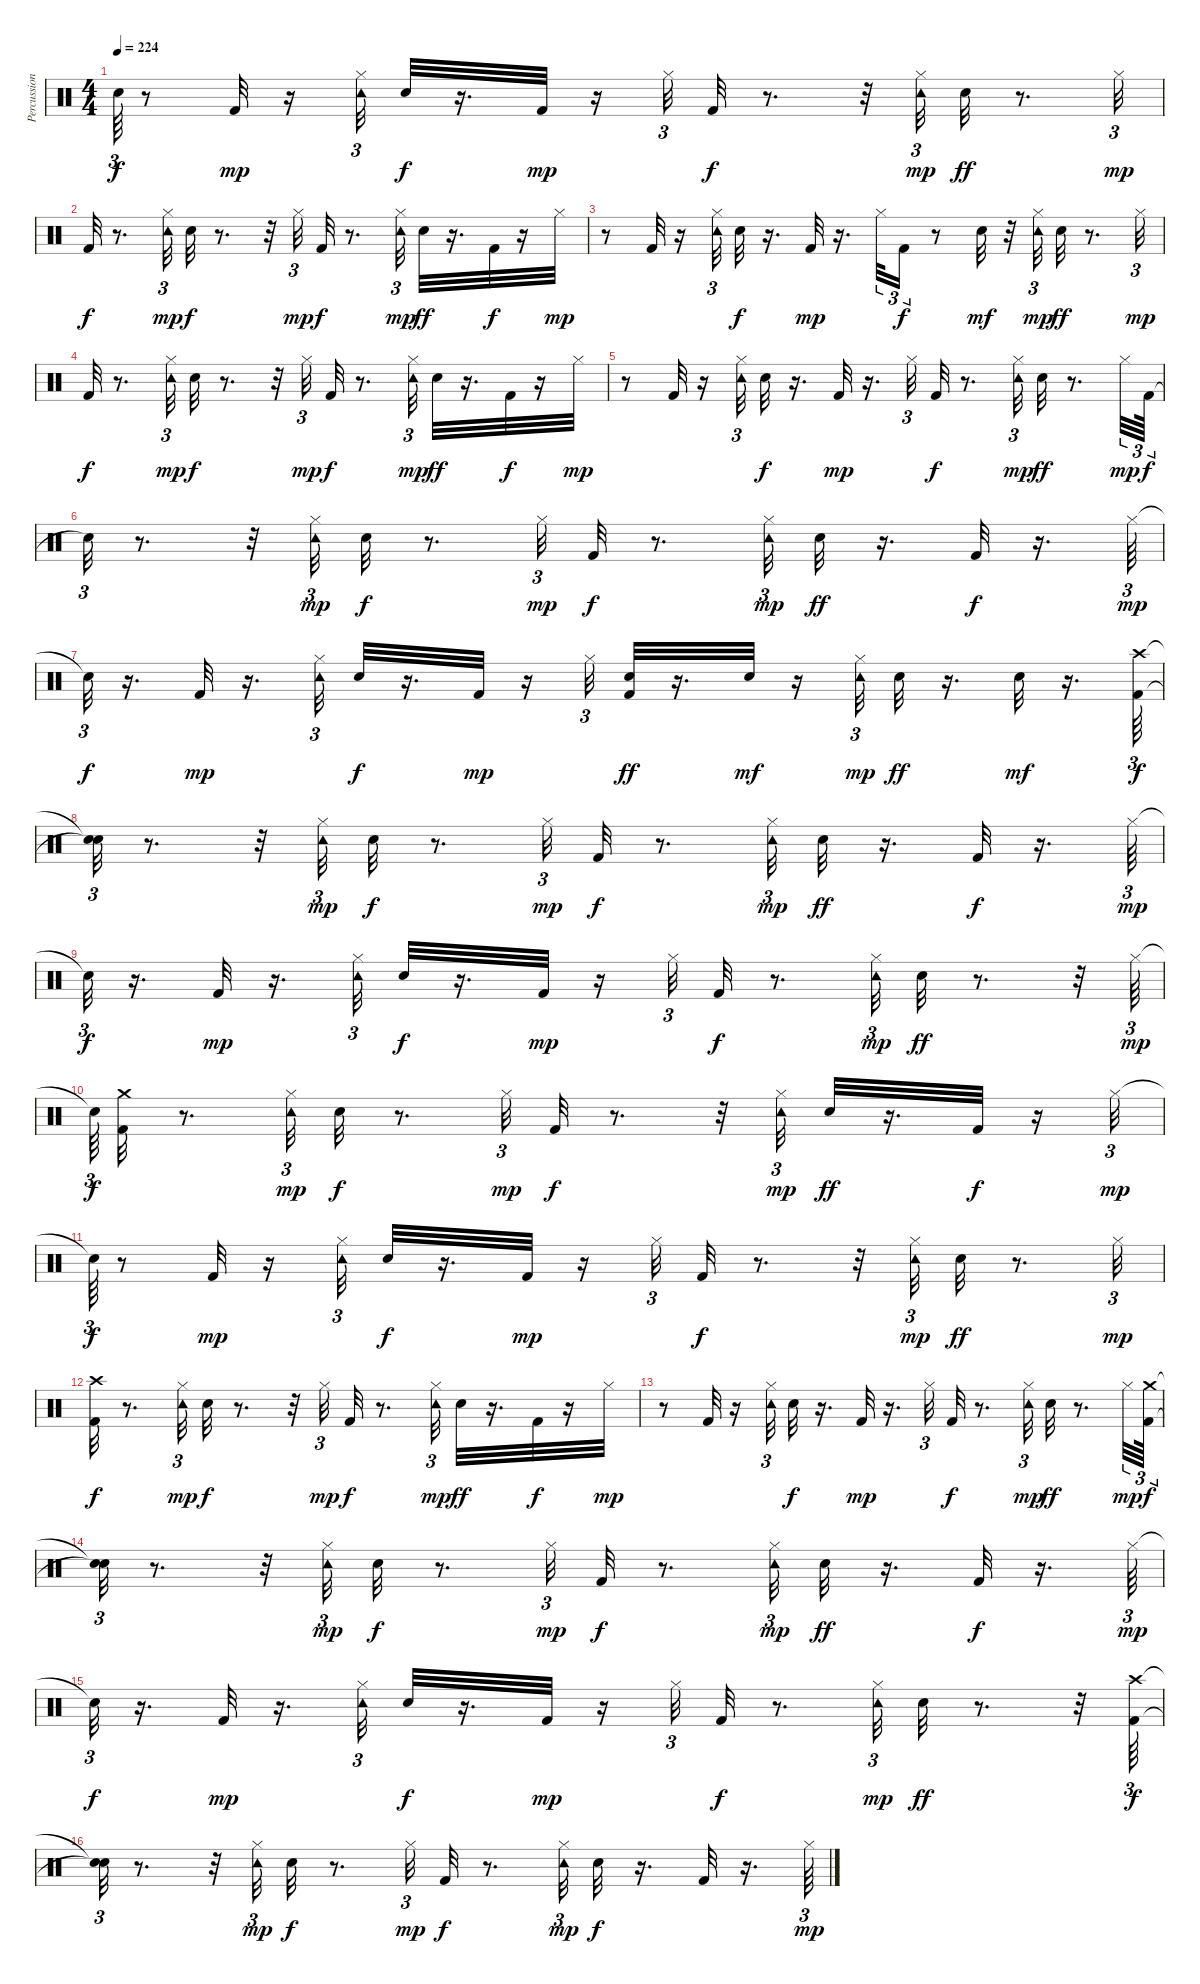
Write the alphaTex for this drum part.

\track ("Percussion" "Percussion") {instrument percussion}
\staff {score}
\articulation defaults
\ts (4 4)
\tempo 224
\clef neutral
\ks c "Snare (hit)"{t}.64{tu (3 2) dy f}
r.8 "Kick (hit) 2".32{dy mp} r.16 ("Tambourine (hit)" "Hi-Hat (closed)").32{tu (3 2)} "Snare (hit) 2".32{dy f} r.16{d} "Kick (hit) 2".32{dy mp} r.16 "Hi-Hat (closed)".32{tu (3 2)} "Kick (hit) 2".32{dy f} r.8{d} r.32 ("Tambourine (hit)" "Hi-Hat (closed)").32{tu (3 2) dy mp} "Snare (hit) 2".32{dy ff} r.8{d} "Hi-Hat (closed)".32{tu (3 2) dy mp} |
"Kick (hit) 2".32{dy f} r.8{d} ("Tambourine (hit)" "Hi-Hat (closed)").32{tu (3 2) dy mp} "Snare (hit) 2".32{dy f} r.8{d} r.32 "Hi-Hat (closed)".32{tu (3 2) dy mp} "Kick (hit) 2".32{dy f} r.8{d} ("Tambourine (hit)" "Hi-Hat (closed)").32{tu (3 2) dy mp} "Snare (hit) 2".32{dy ff} r.16{d} "Kick (hit) 2".32{dy f} r.16 "Hi-Hat (closed)".32{dy mp} |
r.8 "Kick (hit) 2".32 r.16 ("Tambourine (hit)" "Hi-Hat (closed)").32{tu (3 2)} "Snare (hit) 2".32{dy f} r.16{d} "Kick (hit) 2".32{dy mp} r.16{d} "Hi-Hat (closed)".32{tu (3 2)} "Kick (hit) 2".16{tu (3 2) dy f} r.8 "Snare (hit) 2".32{dy mf} r.32 ("Tambourine (hit)" "Hi-Hat (closed)").32{tu (3 2) dy mp} "Snare (hit) 2".32{dy ff} r.8{d} "Hi-Hat (closed)".32{tu (3 2) dy mp} |
"Kick (hit) 2".32{dy f} r.8{d} ("Tambourine (hit)" "Hi-Hat (closed)").32{tu (3 2) dy mp} "Snare (hit) 2".32{dy f} r.8{d} r.32 "Hi-Hat (closed)".32{tu (3 2) dy mp} "Kick (hit) 2".32{dy f} r.8{d} ("Tambourine (hit)" "Hi-Hat (closed)").32{tu (3 2) dy mp} "Snare (hit) 2".32{dy ff} r.16{d} "Kick (hit) 2".32{dy f} r.16 "Hi-Hat (closed)".32{dy mp} |
r.8 "Kick (hit) 2".32 r.16 ("Tambourine (hit)" "Hi-Hat (closed)").32{tu (3 2)} "Snare (hit) 2".32{dy f} r.16{d} "Kick (hit) 2".32{dy mp} r.16{d} "Hi-Hat (closed)".32{tu (3 2)} "Kick (hit) 2".32{dy f} r.8{d} ("Tambourine (hit)" "Hi-Hat (closed)").32{tu (3 2) dy mp} "Snare (hit) 2".32{dy ff} r.8{d} "Hi-Hat (closed)".32{tu (3 2) dy mp} "Kick (hit) 2".64{tu (3 2) dy f} |
"Snare (hit)"{t}.32{tu (3 2)} r.8{d} r.32 ("Tambourine (hit)" "Hi-Hat (closed)").32{tu (3 2) dy mp} "Snare (hit) 2".32{dy f} r.8{d} "Hi-Hat (closed)".32{tu (3 2) dy mp} "Kick (hit) 2".32{dy f} r.8{d} ("Tambourine (hit)" "Hi-Hat (closed)").32{tu (3 2) dy mp} "Snare (hit) 2".32{dy ff} r.16{d} "Kick (hit) 2".32{dy f} r.16{d} "Hi-Hat (closed)".64{tu (3 2) dy mp} |
"Snare (hit)"{t}.32{tu (3 2) dy f} r.16{d} "Kick (hit) 2".32{dy mp} r.16{d} ("Tambourine (hit)" "Hi-Hat (closed)").32{tu (3 2)} "Snare (hit) 2".32{dy f} r.16{d} "Kick (hit) 2".32{dy mp} r.16 "Hi-Hat (closed)".32{tu (3 2)} ("Kick (hit) 2" "Snare (hit) 2").32{dy ff} r.16{d} "Snare (hit) 2".32{dy mf} r.16 ("Tambourine (hit)" "Hi-Hat (closed)").32{tu (3 2) dy mp} "Snare (hit) 2".32{dy ff} r.16{d} "Snare (hit) 2".32{dy mf} r.16{d} ("Kick (hit) 2" "Crash high (hit)").64{tu (3 2) dy f} |
("Snare (hit)"{t} "Snare (hit)"{t}).32{tu (3 2)} r.8{d} r.32 ("Tambourine (hit)" "Hi-Hat (closed)").32{tu (3 2) dy mp} "Snare (hit) 2".32{dy f} r.8{d} "Hi-Hat (closed)".32{tu (3 2) dy mp} "Kick (hit) 2".32{dy f} r.8{d} ("Tambourine (hit)" "Hi-Hat (closed)").32{tu (3 2) dy mp} "Snare (hit) 2".32{dy ff} r.16{d} "Kick (hit) 2".32{dy f} r.16{d} "Hi-Hat (closed)".64{tu (3 2) dy mp} |
"Snare (hit)"{t}.32{tu (3 2) dy f} r.16{d} "Kick (hit) 2".32{dy mp} r.16{d} ("Tambourine (hit)" "Hi-Hat (closed)").32{tu (3 2)} "Snare (hit) 2".32{dy f} r.16{d} "Kick (hit) 2".32{dy mp} r.16 "Hi-Hat (closed)".32{tu (3 2)} "Kick (hit) 2".32{dy f} r.8{d} ("Tambourine (hit)" "Hi-Hat (closed)").32{tu (3 2) dy mp} "Snare (hit) 2".32{dy ff} r.8{d} r.32 "Hi-Hat (closed)".64{tu (3 2) dy mp} |
"Snare (hit)"{t}.64{tu (3 2) dy f} ("Kick (hit) 2" "Crash medium (hit)").32 r.8{d} ("Tambourine (hit)" "Hi-Hat (closed)").32{tu (3 2) dy mp} "Snare (hit) 2".32{dy f} r.8{d} "Hi-Hat (closed)".32{tu (3 2) dy mp} "Kick (hit) 2".32{dy f} r.8{d} r.32 ("Tambourine (hit)" "Hi-Hat (closed)").32{tu (3 2) dy mp} "Snare (hit) 2".32{dy ff} r.16{d} "Kick (hit) 2".32{dy f} r.16 "Hi-Hat (closed)".32{tu (3 2) dy mp} |
"Snare (hit)"{t}.64{tu (3 2) dy f} r.8 "Kick (hit) 2".32{dy mp} r.16 ("Tambourine (hit)" "Hi-Hat (closed)").32{tu (3 2)} "Snare (hit) 2".32{dy f} r.16{d} "Kick (hit) 2".32{dy mp} r.16 "Hi-Hat (closed)".32{tu (3 2)} "Kick (hit) 2".32{dy f} r.8{d} r.32 ("Tambourine (hit)" "Hi-Hat (closed)").32{tu (3 2) dy mp} "Snare (hit) 2".32{dy ff} r.8{d} "Hi-Hat (closed)".32{tu (3 2) dy mp} |
("Kick (hit) 2" "Crash high (hit)").32{dy f} r.8{d} ("Tambourine (hit)" "Hi-Hat (closed)").32{tu (3 2) dy mp} "Snare (hit) 2".32{dy f} r.8{d} r.32 "Hi-Hat (closed)".32{tu (3 2) dy mp} "Kick (hit) 2".32{dy f} r.8{d} ("Tambourine (hit)" "Hi-Hat (closed)").32{tu (3 2) dy mp} "Snare (hit) 2".32{dy ff} r.16{d} "Kick (hit) 2".32{dy f} r.16 "Hi-Hat (closed)".32{dy mp} |
r.8 "Kick (hit) 2".32 r.16 ("Tambourine (hit)" "Hi-Hat (closed)").32{tu (3 2)} "Snare (hit) 2".32{dy f} r.16{d} "Kick (hit) 2".32{dy mp} r.16{d} "Hi-Hat (closed)".32{tu (3 2)} "Kick (hit) 2".32{dy f} r.8{d} ("Tambourine (hit)" "Hi-Hat (closed)").32{tu (3 2) dy mp} "Snare (hit) 2".32{dy ff} r.8{d} "Hi-Hat (closed)".32{tu (3 2) dy mp} ("Kick (hit) 2" "Crash medium (hit)").64{tu (3 2) dy f} |
("Snare (hit)"{t} "Snare (hit)"{t}).32{tu (3 2)} r.8{d} r.32 ("Tambourine (hit)" "Hi-Hat (closed)").32{tu (3 2) dy mp} "Snare (hit) 2".32{dy f} r.8{d} "Hi-Hat (closed)".32{tu (3 2) dy mp} "Kick (hit) 2".32{dy f} r.8{d} ("Tambourine (hit)" "Hi-Hat (closed)").32{tu (3 2) dy mp} "Snare (hit) 2".32{dy ff} r.16{d} "Kick (hit) 2".32{dy f} r.16{d} "Hi-Hat (closed)".64{tu (3 2) dy mp} |
"Snare (hit)"{t}.32{tu (3 2) dy f} r.16{d} "Kick (hit) 2".32{dy mp} r.16{d} ("Tambourine (hit)" "Hi-Hat (closed)").32{tu (3 2)} "Snare (hit) 2".32{dy f} r.16{d} "Kick (hit) 2".32{dy mp} r.16 "Hi-Hat (closed)".32{tu (3 2)} "Kick (hit) 2".32{dy f} r.8{d} ("Tambourine (hit)" "Hi-Hat (closed)").32{tu (3 2) dy mp} "Snare (hit) 2".32{dy ff} r.8{d} r.32 ("Kick (hit) 2" "Crash high (hit)").64{tu (3 2) dy f} |
("Snare (hit)"{t} "Snare (hit)"{t}).32{tu (3 2)} r.8{d} r.32 ("Tambourine (hit)" "Hi-Hat (closed)").32{tu (3 2) dy mp} "Snare (hit) 2".32{dy f} r.8{d} "Hi-Hat (closed)".32{tu (3 2) dy mp} "Kick (hit) 2".32{dy f} r.8{d} ("Tambourine (hit)" "Hi-Hat (closed)").32{tu (3 2) dy mp} "Snare (hit) 2".32{dy f} r.16{d} "Kick (hit) 2".32 r.16{d} "Hi-Hat (closed)".64{tu (3 2) dy mp}
